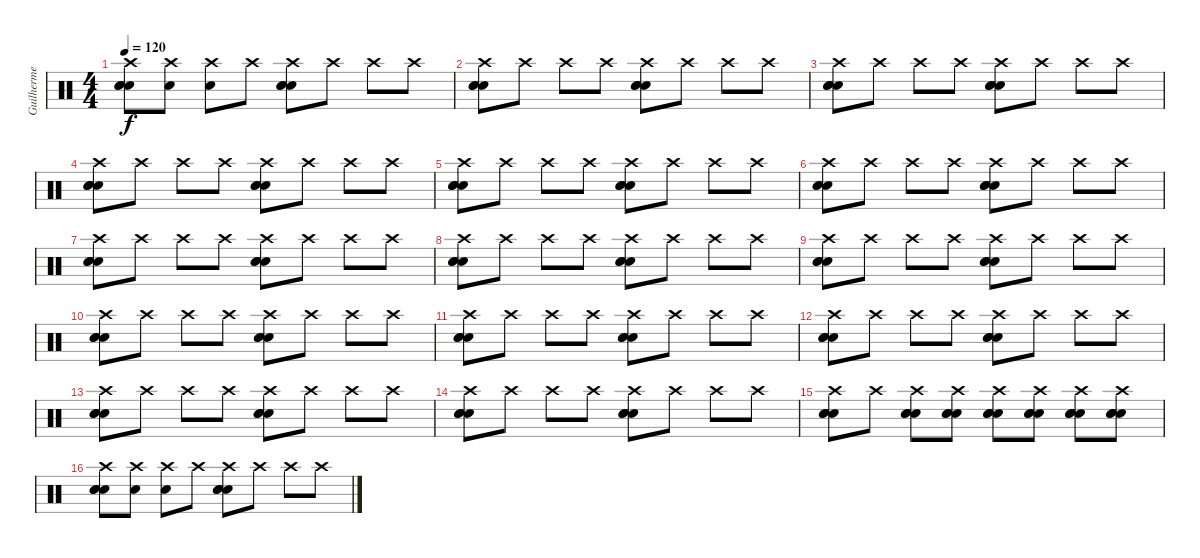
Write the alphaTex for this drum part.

\track ("Guilherme" "Guilherme") {instrument percussion}
\staff {score}
\articulation defaults
\ts (4 4)
\tempo 120
\clef neutral
\ks c
("Crash high (hit)" "Snare (hit) 2" "Snare (hit) 2" "Snare (hit) 2").8{dy f} ("Crash high (hit)" "Electric Snare (hit)").8 ("Crash high (hit)" "Electric Snare (hit)").8 "Crash high (hit)".8 ("Crash high (hit)" "Snare (hit) 2" "Snare (hit) 2" "Snare (hit) 2").8 "Crash high (hit)".8 "Crash high (hit)".8 "Crash high (hit)".8 |
("Crash high (hit)" "Snare (hit) 2" "Snare (hit) 2" "Snare (hit) 2").8 "Crash high (hit)".8 "Crash high (hit)".8 "Crash high (hit)".8 ("Crash high (hit)" "Snare (hit) 2" "Snare (hit) 2" "Snare (hit) 2").8 "Crash high (hit)".8 "Crash high (hit)".8 "Crash high (hit)".8 |
("Crash high (hit)" "Snare (hit) 2" "Snare (hit) 2" "Snare (hit) 2").8 "Crash high (hit)".8 "Crash high (hit)".8 "Crash high (hit)".8 ("Crash high (hit)" "Snare (hit) 2" "Snare (hit) 2" "Snare (hit) 2").8 "Crash high (hit)".8 "Crash high (hit)".8 "Crash high (hit)".8 |
("Crash high (hit)" "Snare (hit) 2" "Snare (hit) 2" "Snare (hit) 2").8 "Crash high (hit)".8 "Crash high (hit)".8 "Crash high (hit)".8 ("Crash high (hit)" "Snare (hit) 2" "Snare (hit) 2" "Snare (hit) 2").8 "Crash high (hit)".8 "Crash high (hit)".8 "Crash high (hit)".8 |
("Crash high (hit)" "Snare (hit) 2" "Snare (hit) 2" "Snare (hit) 2").8 "Crash high (hit)".8 "Crash high (hit)".8 "Crash high (hit)".8 ("Crash high (hit)" "Snare (hit) 2" "Snare (hit) 2" "Snare (hit) 2").8 "Crash high (hit)".8 "Crash high (hit)".8 "Crash high (hit)".8 |
("Crash high (hit)" "Snare (hit) 2" "Snare (hit) 2" "Snare (hit) 2").8 "Crash high (hit)".8 "Crash high (hit)".8 "Crash high (hit)".8 ("Crash high (hit)" "Snare (hit) 2" "Snare (hit) 2" "Snare (hit) 2").8 "Crash high (hit)".8 "Crash high (hit)".8 "Crash high (hit)".8 |
("Crash high (hit)" "Snare (hit) 2" "Snare (hit) 2" "Snare (hit) 2").8 "Crash high (hit)".8 "Crash high (hit)".8 "Crash high (hit)".8 ("Crash high (hit)" "Snare (hit) 2" "Snare (hit) 2" "Snare (hit) 2").8 "Crash high (hit)".8 "Crash high (hit)".8 "Crash high (hit)".8 |
("Crash high (hit)" "Snare (hit) 2" "Snare (hit) 2" "Snare (hit) 2").8 "Crash high (hit)".8 "Crash high (hit)".8 "Crash high (hit)".8 ("Crash high (hit)" "Snare (hit) 2" "Snare (hit) 2" "Snare (hit) 2").8 "Crash high (hit)".8 "Crash high (hit)".8 "Crash high (hit)".8 |
("Crash high (hit)" "Snare (hit) 2" "Snare (hit) 2" "Snare (hit) 2").8 "Crash high (hit)".8 "Crash high (hit)".8 "Crash high (hit)".8 ("Crash high (hit)" "Snare (hit) 2" "Snare (hit) 2" "Snare (hit) 2").8 "Crash high (hit)".8 "Crash high (hit)".8 "Crash high (hit)".8 |
("Crash high (hit)" "Snare (hit) 2" "Snare (hit) 2" "Snare (hit) 2").8 "Crash high (hit)".8 "Crash high (hit)".8 "Crash high (hit)".8 ("Crash high (hit)" "Snare (hit) 2" "Snare (hit) 2" "Snare (hit) 2").8 "Crash high (hit)".8 "Crash high (hit)".8 "Crash high (hit)".8 |
("Crash high (hit)" "Snare (hit) 2" "Snare (hit) 2" "Snare (hit) 2").8 "Crash high (hit)".8 "Crash high (hit)".8 "Crash high (hit)".8 ("Crash high (hit)" "Snare (hit) 2" "Snare (hit) 2" "Snare (hit) 2").8 "Crash high (hit)".8 "Crash high (hit)".8 "Crash high (hit)".8 |
("Crash high (hit)" "Snare (hit) 2" "Snare (hit) 2" "Snare (hit) 2").8 "Crash high (hit)".8 "Crash high (hit)".8 "Crash high (hit)".8 ("Crash high (hit)" "Snare (hit) 2" "Snare (hit) 2" "Snare (hit) 2").8 "Crash high (hit)".8 "Crash high (hit)".8 "Crash high (hit)".8 |
("Crash high (hit)" "Snare (hit) 2" "Snare (hit) 2" "Snare (hit) 2").8 "Crash high (hit)".8 "Crash high (hit)".8 "Crash high (hit)".8 ("Crash high (hit)" "Snare (hit) 2" "Snare (hit) 2" "Snare (hit) 2").8 "Crash high (hit)".8 "Crash high (hit)".8 "Crash high (hit)".8 |
("Crash high (hit)" "Snare (hit) 2" "Snare (hit) 2" "Snare (hit) 2").8 "Crash high (hit)".8 "Crash high (hit)".8 "Crash high (hit)".8 ("Crash high (hit)" "Snare (hit) 2" "Snare (hit) 2" "Snare (hit) 2").8 "Crash high (hit)".8 "Crash high (hit)".8 "Crash high (hit)".8 |
("Crash high (hit)" "Snare (hit) 2" "Snare (hit) 2" "Snare (hit) 2").8 "Crash high (hit)".8 ("Crash high (hit)" "Snare (hit) 2" "Snare (hit) 2" "Snare (hit) 2").8 ("Crash high (hit)" "Snare (hit) 2" "Snare (hit) 2" "Snare (hit) 2").8 ("Crash high (hit)" "Snare (hit) 2" "Snare (hit) 2" "Snare (hit) 2").8 ("Crash high (hit)" "Snare (hit) 2" "Snare (hit) 2" "Snare (hit) 2").8 ("Crash high (hit)" "Snare (hit) 2" "Snare (hit) 2" "Snare (hit) 2").8 ("Crash high (hit)" "Snare (hit) 2" "Snare (hit) 2" "Snare (hit) 2").8 |
("Crash high (hit)" "Snare (hit) 2" "Snare (hit) 2" "Snare (hit) 2").8 ("Crash high (hit)" "Electric Snare (hit)").8 ("Crash high (hit)" "Electric Snare (hit)").8 "Crash high (hit)".8 ("Crash high (hit)" "Snare (hit) 2" "Snare (hit) 2" "Snare (hit) 2").8 "Crash high (hit)".8 "Crash high (hit)".8 "Crash high (hit)".8
